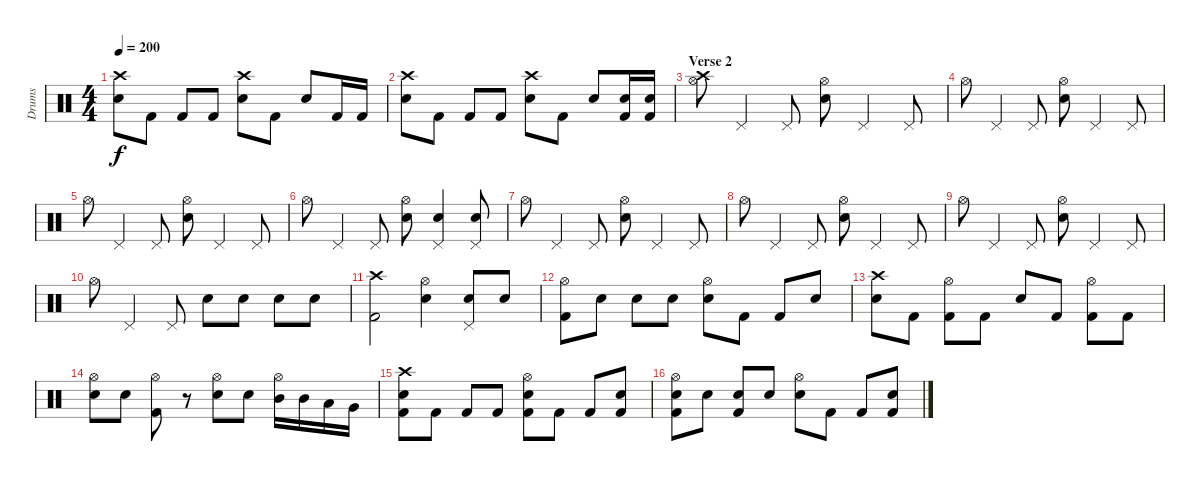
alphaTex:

\track ("Drums" "Drums") {instrument percussion}
\staff {score}
\articulation defaults
\ts (4 4)
\tempo 200
\clef neutral
\ks c
("Crash high (hit)" "Electric Snare (hit)").8{dy f} "Kick (hit) 2".8 "Kick (hit) 2".8 "Kick (hit) 2".8 ("Crash high (hit)" "Electric Snare (hit)").8 "Kick (hit) 2".8 "Electric Snare (hit)".8 "Kick (hit) 2".16 "Kick (hit) 2".16 |
("Crash high (hit)" "Electric Snare (hit)").8 "Kick (hit) 2".8 "Kick (hit) 2".8 "Kick (hit) 2".8 ("Crash high (hit)" "Electric Snare (hit)").8 "Kick (hit) 2".8 "Electric Snare (hit)".8 ("Electric Snare (hit)" "Kick (hit) 2").16 ("Electric Snare (hit)" "Kick (hit) 2").16 |
\section ("" "Verse 2")
("Crash high (hit)" "Hi-Hat (open)").8 "Pedal Hi-Hat (hit)".4 "Pedal Hi-Hat (hit)".8 ("Hi-Hat (open)" "Electric Snare (hit)").8 "Pedal Hi-Hat (hit)".4 "Pedal Hi-Hat (hit)".8 |
"Hi-Hat (open)".8 "Pedal Hi-Hat (hit)".4 "Pedal Hi-Hat (hit)".8 ("Hi-Hat (open)" "Electric Snare (hit)").8 "Pedal Hi-Hat (hit)".4 "Pedal Hi-Hat (hit)".8 |
"Hi-Hat (open)".8 "Pedal Hi-Hat (hit)".4 "Pedal Hi-Hat (hit)".8 ("Hi-Hat (open)" "Electric Snare (hit)").8 "Pedal Hi-Hat (hit)".4 "Pedal Hi-Hat (hit)".8 |
"Hi-Hat (open)".8 "Pedal Hi-Hat (hit)".4 "Pedal Hi-Hat (hit)".8 ("Hi-Hat (open)" "Electric Snare (hit)").8 ("Pedal Hi-Hat (hit)" "Electric Snare (hit)").4 ("Pedal Hi-Hat (hit)" "Electric Snare (hit)").8 |
"Hi-Hat (open)".8 "Pedal Hi-Hat (hit)".4 "Pedal Hi-Hat (hit)".8 ("Hi-Hat (open)" "Electric Snare (hit)").8 "Pedal Hi-Hat (hit)".4 "Pedal Hi-Hat (hit)".8 |
"Hi-Hat (open)".8 "Pedal Hi-Hat (hit)".4 "Pedal Hi-Hat (hit)".8 ("Hi-Hat (open)" "Electric Snare (hit)").8 "Pedal Hi-Hat (hit)".4 "Pedal Hi-Hat (hit)".8 |
"Hi-Hat (open)".8 "Pedal Hi-Hat (hit)".4 "Pedal Hi-Hat (hit)".8 ("Hi-Hat (open)" "Electric Snare (hit)").8 "Pedal Hi-Hat (hit)".4 "Pedal Hi-Hat (hit)".8 |
"Hi-Hat (open)".8 "Pedal Hi-Hat (hit)".4 "Pedal Hi-Hat (hit)".8 "Electric Snare (hit)".8 "Electric Snare (hit)".8 "Electric Snare (hit)".8 "Electric Snare (hit)".8 |
("Crash high (hit)" "Kick (hit) 2").2 ("Hi-Hat (open)" "Electric Snare (hit)").4 ("Pedal Hi-Hat (hit)" "Electric Snare (hit)").8 "Electric Snare (hit)".8 |
("Hi-Hat (open)" "Kick (hit) 2").8 "Electric Snare (hit)".8 "Electric Snare (hit)".8 "Electric Snare (hit)".8 ("Hi-Hat (open)" "Electric Snare (hit)").8 "Kick (hit) 2".8 "Kick (hit) 2".8 "Electric Snare (hit)".8 |
("Crash high (hit)" "Electric Snare (hit)").8 "Kick (hit) 2".8 ("Hi-Hat (open)" "Kick (hit) 2").8 "Kick (hit) 2".8 "Electric Snare (hit)".8 "Kick (hit) 2".8 ("Hi-Hat (open)" "Kick (hit) 2").8 "Kick (hit) 2".8 |
("Hi-Hat (open)" "Electric Snare (hit)").8 "Electric Snare (hit)".8 ("Hi-Hat (open)" "Kick (hit) 2").8 r.8 ("Hi-Hat (open)" "Electric Snare (hit)").8 "Electric Snare (hit)".8 ("Hi-Hat (open)" "Mid Tom (hit)").16 "Mid Tom (hit)".16 "Low Tom (hit)".16 "Very Low Tom (hit)".16 |
("Crash high (hit)" "Electric Snare (hit)" "Kick (hit) 2").8 "Kick (hit) 2".8 "Kick (hit) 2".8 "Kick (hit) 2".8 ("Hi-Hat (open)" "Electric Snare (hit)" "Kick (hit) 2").8 "Kick (hit) 2".8 "Kick (hit) 2".8 ("Electric Snare (hit)" "Kick (hit) 2").8 |
("Hi-Hat (open)" "Electric Snare (hit)" "Kick (hit) 2").8 "Electric Snare (hit)".8 ("Electric Snare (hit)" "Kick (hit) 2").8 "Electric Snare (hit)".8 ("Hi-Hat (open)" "Electric Snare (hit)").8 "Kick (hit) 2".8 "Kick (hit) 2".8 ("Electric Snare (hit)" "Kick (hit) 2").8
